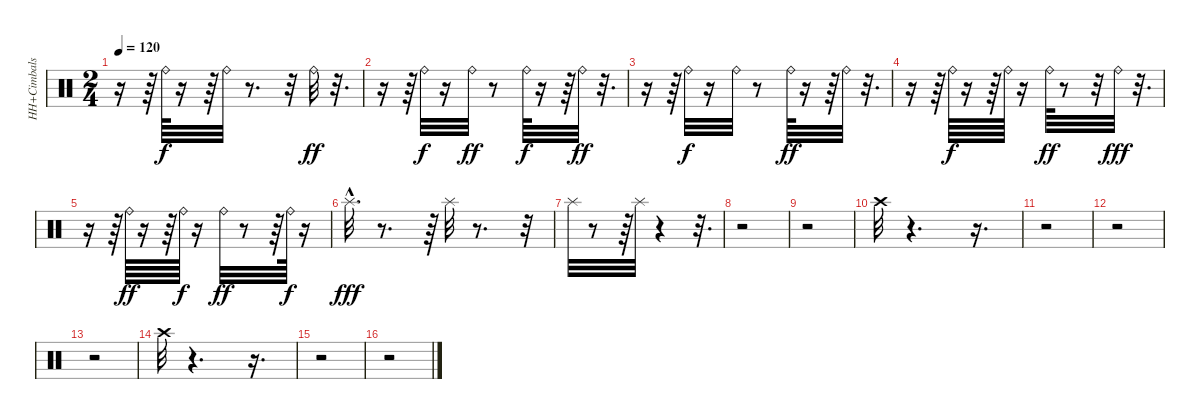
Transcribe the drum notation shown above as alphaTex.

\track ("HH+Cimbals" "HH+Cimbals") {instrument percussion}
\staff {score}
\articulation defaults
\ts (2 4)
\tempo 120
\clef neutral
\ks c
r.16{dy ff} r.64 "Ride (bell)".64{dy f} r.16 r.64 "Ride (bell)".32 r.8{d} r.32 "Ride (bell)".32{dy ff} r.32{d} |
r.16 r.64 "Ride (bell)".32{dy f} r.16 "Ride (bell)".32{dy ff} r.8 "Ride (bell)".64{dy f} r.16 r.64 "Ride (bell)".32{dy ff} r.32{d} |
r.16 r.64 "Ride (bell)".32{dy f} r.16 "Ride (bell)".32 r.8 "Ride (bell)".64{dy ff} r.16 r.64 "Ride (bell)".32 r.32{d} |
r.16 r.64 "Ride (bell)".64{dy f} r.16 r.64 "Ride (bell)".64 r.16 "Ride (bell)".64{dy ff} r.8 r.32 "Ride (bell)".32{dy fff} r.32{d} |
r.16 r.64 "Ride (bell)".64{dy ff} r.16 r.64 "Ride (bell)".64{dy f} r.16 "Ride (bell)".32{dy ff} r.8 r.64 "Ride (bell)".64{dy f} r.16 |
"Splash (hit)"{hac}.32{d dy fff} r.8{d} r.64 "Splash (hit)".32 r.8{d} r.32 |
"Splash (hit)".32 r.8 r.64 "Splash (hit)".32 r.4 r.32{d} |
r.2 |
r.2 |
"Crash high (hit)".32 r.4{d} r.16{d} |
r.2 |
r.2 |
r.2 |
"Crash high (hit)".32 r.4{d} r.16{d} |
r.2 |
r.2
